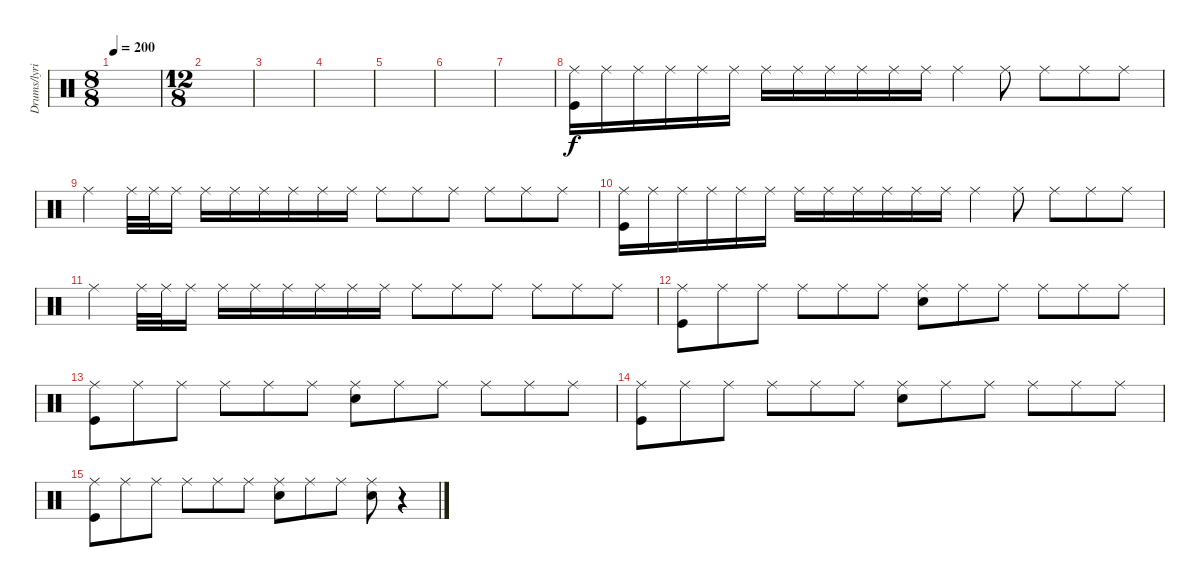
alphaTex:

\track ("Drums/lyrics" "Drums/lyri") {instrument percussion}
\staff {score}
\articulation defaults
\ts (8 8)
\tempo 200
\clef neutral
\ks c
|
\ts (12 8)
|
|
|
|
|
|
("Ride (middle)" "Kick (hit)").16 "Ride (middle)".16 "Ride (middle)".16 "Ride (middle)".16 "Ride (middle)".16 "Ride (middle)".16 "Ride (middle)".16 "Ride (middle)".16 "Ride (middle)".16 "Ride (middle)".16 "Ride (middle)".16 "Ride (middle)".16 "Ride (middle)".4 "Ride (middle)".8 "Ride (middle)".8 "Ride (middle)".8 "Ride (middle)".8 |
"Ride (middle)".4 "Ride (middle)".32 "Ride (middle)".32 "Ride (middle)".16 "Ride (middle)".16 "Ride (middle)".16 "Ride (middle)".16 "Ride (middle)".16 "Ride (middle)".16 "Ride (middle)".16 "Ride (middle)".8 "Ride (middle)".8 "Ride (middle)".8 "Ride (middle)".8 "Ride (middle)".8 "Ride (middle)".8 |
("Ride (middle)" "Kick (hit)").16 "Ride (middle)".16 "Ride (middle)".16 "Ride (middle)".16 "Ride (middle)".16 "Ride (middle)".16 "Ride (middle)".16 "Ride (middle)".16 "Ride (middle)".16 "Ride (middle)".16 "Ride (middle)".16 "Ride (middle)".16 "Ride (middle)".4 "Ride (middle)".8 "Ride (middle)".8 "Ride (middle)".8 "Ride (middle)".8 |
"Ride (middle)".4 "Ride (middle)".32 "Ride (middle)".32 "Ride (middle)".16 "Ride (middle)".16 "Ride (middle)".16 "Ride (middle)".16 "Ride (middle)".16 "Ride (middle)".16 "Ride (middle)".16 "Ride (middle)".8 "Ride (middle)".8 "Ride (middle)".8 "Ride (middle)".8 "Ride (middle)".8 "Ride (middle)".8 |
("Ride (middle)" "Kick (hit)").8 "Ride (middle)".8 "Ride (middle)".8 "Ride (middle)".8 "Ride (middle)".8 "Ride (middle)".8 ("Ride (middle)" "Snare (hit) 2").8 "Ride (middle)".8 "Ride (middle)".8 "Ride (middle)".8 "Ride (middle)".8 "Ride (middle)".8 |
("Ride (middle)" "Kick (hit)").8 "Ride (middle)".8 "Ride (middle)".8 "Ride (middle)".8 "Ride (middle)".8 "Ride (middle)".8 ("Ride (middle)" "Snare (hit) 2").8 "Ride (middle)".8 "Ride (middle)".8 "Ride (middle)".8 "Ride (middle)".8 "Ride (middle)".8 |
("Ride (middle)" "Kick (hit)").8 "Ride (middle)".8 "Ride (middle)".8 "Ride (middle)".8 "Ride (middle)".8 "Ride (middle)".8 ("Ride (middle)" "Snare (hit) 2").8 "Ride (middle)".8 "Ride (middle)".8 "Ride (middle)".8 "Ride (middle)".8 "Ride (middle)".8 |
("Ride (middle)" "Kick (hit)").8 "Ride (middle)".8 "Ride (middle)".8 "Ride (middle)".8 "Ride (middle)".8 "Ride (middle)".8 ("Ride (middle)" "Snare (hit) 2").8 "Ride (middle)".8 "Ride (middle)".8 ("Ride (middle)" "Snare (hit) 2").8 r.4
